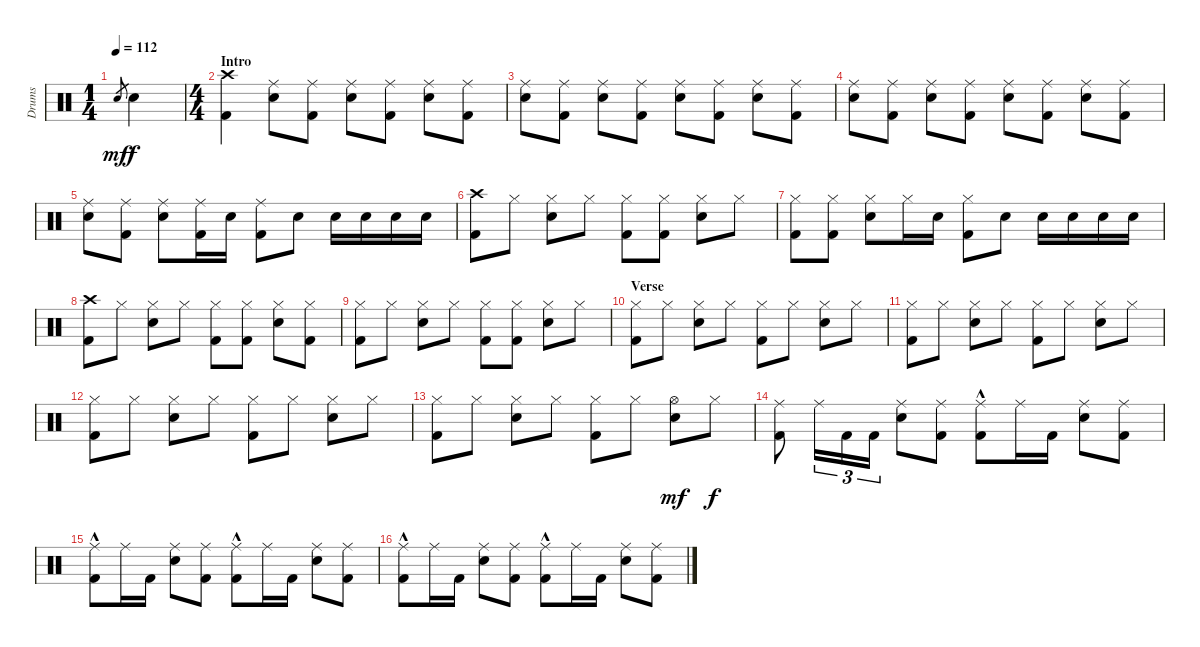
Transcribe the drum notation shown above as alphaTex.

\track ("Drums" "Drums") {instrument percussion}
\staff {score}
\articulation defaults
\ts (1 4)
\tempo 112
\clef neutral
\ks c "Electric Snare (hit)"{h}.8{gr dy mf} "Electric Snare (hit)".4{dy f}
|
\ts (4 4)
\section ("" "Intro")
("Crash high (hit)" "Kick (hit) 2").4 ("Ride (middle)" "Electric Snare (hit)").8 ("Ride (middle)" "Kick (hit) 2").8 ("Ride (middle)" "Electric Snare (hit)").8 ("Ride (middle)" "Kick (hit) 2").8 ("Ride (middle)" "Electric Snare (hit)").8 ("Ride (middle)" "Kick (hit) 2").8 |
("Ride (middle)" "Electric Snare (hit)").8 ("Ride (middle)" "Kick (hit) 2").8 ("Ride (middle)" "Electric Snare (hit)").8 ("Ride (middle)" "Kick (hit) 2").8 ("Ride (middle)" "Electric Snare (hit)").8 ("Ride (middle)" "Kick (hit) 2").8 ("Ride (middle)" "Electric Snare (hit)").8 ("Ride (middle)" "Kick (hit) 2").8 |
("Ride (middle)" "Electric Snare (hit)").8 ("Ride (middle)" "Kick (hit) 2").8 ("Ride (middle)" "Electric Snare (hit)").8 ("Ride (middle)" "Kick (hit) 2").8 ("Ride (middle)" "Electric Snare (hit)").8 ("Ride (middle)" "Kick (hit) 2").8 ("Ride (middle)" "Electric Snare (hit)").8 ("Ride (middle)" "Kick (hit) 2").8 |
("Ride (middle)" "Electric Snare (hit)").8 ("Ride (middle)" "Kick (hit) 2").8 ("Ride (middle)" "Electric Snare (hit)").8 ("Ride (middle)" "Kick (hit) 2").16 "Electric Snare (hit)".16 ("Ride (middle)" "Kick (hit) 2").8 "Electric Snare (hit)".8 "Electric Snare (hit)".16 "Electric Snare (hit)".16 "Electric Snare (hit)".16 "Electric Snare (hit)".16 |
("Crash high (hit)" "Kick (hit) 2").8 "Hi-Hat (closed)".8 ("Hi-Hat (closed)" "Electric Snare (hit)").8 "Hi-Hat (closed)".8 ("Hi-Hat (closed)" "Kick (hit) 2").8 ("Hi-Hat (closed)" "Kick (hit) 2").8 ("Hi-Hat (closed)" "Electric Snare (hit)").8 "Hi-Hat (closed)".8 |
("Hi-Hat (closed)" "Kick (hit) 2").8 ("Hi-Hat (closed)" "Kick (hit) 2").8 ("Hi-Hat (closed)" "Electric Snare (hit)").8 "Hi-Hat (closed)".16 "Electric Snare (hit)".16 ("Hi-Hat (closed)" "Kick (hit) 2").8 "Electric Snare (hit)".8 "Electric Snare (hit)".16 "Electric Snare (hit)".16 "Electric Snare (hit)".16 "Electric Snare (hit)".16 |
("Crash high (hit)" "Kick (hit) 2").8 "Hi-Hat (closed)".8 ("Hi-Hat (closed)" "Electric Snare (hit)").8 "Hi-Hat (closed)".8 ("Hi-Hat (closed)" "Kick (hit) 2").8 ("Hi-Hat (closed)" "Kick (hit) 2").8 ("Hi-Hat (closed)" "Electric Snare (hit)").8 ("Hi-Hat (closed)" "Kick (hit) 2").8 |
("Hi-Hat (closed)" "Kick (hit) 2").8 "Hi-Hat (closed)".8 ("Hi-Hat (closed)" "Electric Snare (hit)").8 "Hi-Hat (closed)".8 ("Hi-Hat (closed)" "Kick (hit) 2").8 ("Hi-Hat (closed)" "Kick (hit) 2").8 ("Hi-Hat (closed)" "Electric Snare (hit)").8 "Hi-Hat (closed)".8 |
\section ("" "Verse")
("Hi-Hat (closed)" "Kick (hit) 2").8 "Hi-Hat (closed)".8 ("Hi-Hat (closed)" "Electric Snare (hit)").8 "Hi-Hat (closed)".8 ("Hi-Hat (closed)" "Kick (hit) 2").8 "Hi-Hat (closed)".8 ("Hi-Hat (closed)" "Electric Snare (hit)").8 "Hi-Hat (closed)".8 |
("Hi-Hat (closed)" "Kick (hit) 2").8 "Hi-Hat (closed)".8 ("Hi-Hat (closed)" "Electric Snare (hit)").8 "Hi-Hat (closed)".8 ("Hi-Hat (closed)" "Kick (hit) 2").8 "Hi-Hat (closed)".8 ("Hi-Hat (closed)" "Electric Snare (hit)").8 "Hi-Hat (closed)".8 |
("Hi-Hat (closed)" "Kick (hit) 2").8 "Hi-Hat (closed)".8 ("Hi-Hat (closed)" "Electric Snare (hit)").8 "Hi-Hat (closed)".8 ("Hi-Hat (closed)" "Kick (hit) 2").8 "Hi-Hat (closed)".8 ("Hi-Hat (closed)" "Electric Snare (hit)").8 "Hi-Hat (closed)".8 |
("Hi-Hat (closed)" "Kick (hit) 2").8 "Hi-Hat (closed)".8 ("Hi-Hat (closed)" "Electric Snare (hit)").8 "Hi-Hat (closed)".8 ("Hi-Hat (closed)" "Kick (hit) 2").8 "Hi-Hat (closed)".8 ("Hi-Hat (open)" "Electric Snare (hit)").8{dy mf} "Hi-Hat (closed)".8{dy f} |
("Ride (middle)" "Kick (hit) 2").8 "Ride (middle)".16{tu (3 2)} "Kick (hit) 2".16{tu (3 2)} "Kick (hit) 2".16{tu (3 2)} ("Ride (middle)" "Electric Snare (hit)").8 ("Ride (middle)" "Kick (hit) 2").8 ("Ride (middle)" "Kick (hit) 2"{hac}).8 "Ride (middle)".16 "Kick (hit) 2".16 ("Ride (middle)" "Electric Snare (hit)").8 ("Ride (middle)" "Kick (hit) 2").8 |
("Ride (middle)" "Kick (hit) 2"{hac}).8 "Ride (middle)".16 "Kick (hit) 2".16 ("Ride (middle)" "Electric Snare (hit)").8 ("Ride (middle)" "Kick (hit) 2").8 ("Ride (middle)" "Kick (hit) 2"{hac}).8 "Ride (middle)".16 "Kick (hit) 2".16 ("Ride (middle)" "Electric Snare (hit)").8 ("Ride (middle)" "Kick (hit) 2").8 |
("Ride (middle)" "Kick (hit) 2"{hac}).8 "Ride (middle)".16 "Kick (hit) 2".16 ("Ride (middle)" "Electric Snare (hit)").8 ("Ride (middle)" "Kick (hit) 2").8 ("Ride (middle)" "Kick (hit) 2"{hac}).8 "Ride (middle)".16 "Kick (hit) 2".16 ("Ride (middle)" "Electric Snare (hit)").8 ("Ride (middle)" "Kick (hit) 2").8
